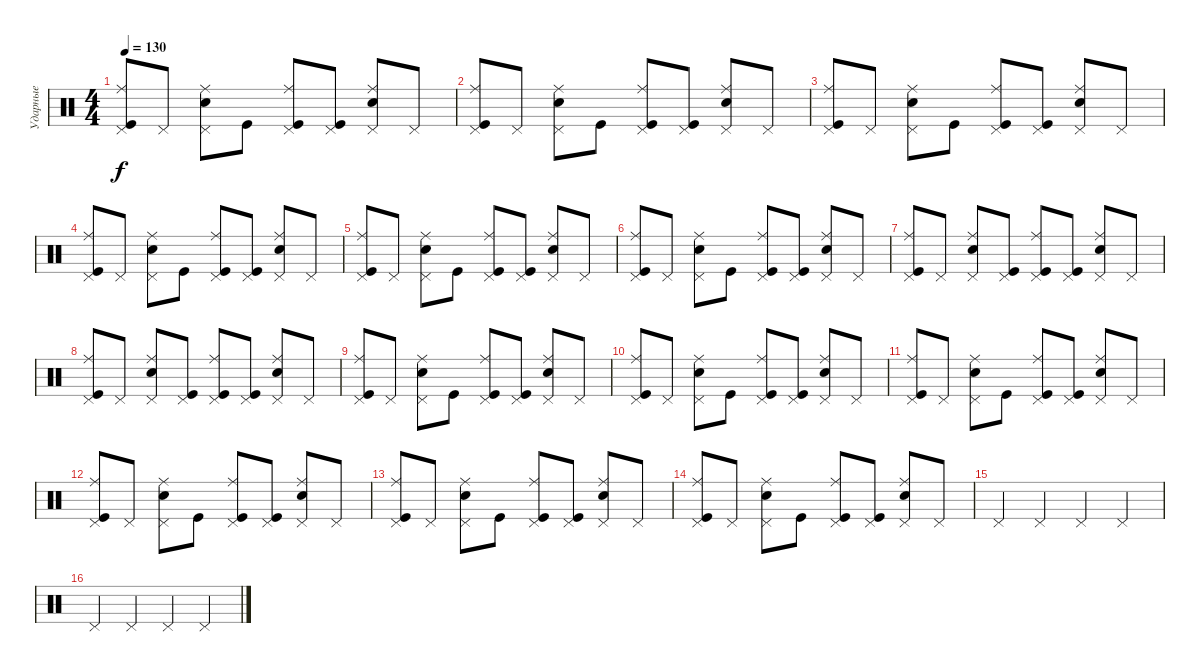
\track ("Ударные" "Ударные") {instrument percussion}
\staff {score}
\articulation defaults
\ts (4 4)
\tempo 130
\clef neutral
\ks c
("Ride (middle)" "Pedal Hi-Hat (hit)" "Kick (hit)").8{dy f} "Pedal Hi-Hat (hit)".8 ("Ride (middle)" "Pedal Hi-Hat (hit)" "Electric Snare (hit)").8 "Kick (hit)".8 ("Ride (middle)" "Pedal Hi-Hat (hit)" "Kick (hit)").8 ("Pedal Hi-Hat (hit)" "Kick (hit)").8 ("Ride (middle)" "Pedal Hi-Hat (hit)" "Electric Snare (hit)").8 "Pedal Hi-Hat (hit)".8 |
("Ride (middle)" "Pedal Hi-Hat (hit)" "Kick (hit)").8 "Pedal Hi-Hat (hit)".8 ("Ride (middle)" "Pedal Hi-Hat (hit)" "Electric Snare (hit)").8 "Kick (hit)".8 ("Ride (middle)" "Pedal Hi-Hat (hit)" "Kick (hit)").8 ("Pedal Hi-Hat (hit)" "Kick (hit)").8 ("Ride (middle)" "Pedal Hi-Hat (hit)" "Electric Snare (hit)").8 "Pedal Hi-Hat (hit)".8 |
("Ride (middle)" "Pedal Hi-Hat (hit)" "Kick (hit)").8 "Pedal Hi-Hat (hit)".8 ("Ride (middle)" "Pedal Hi-Hat (hit)" "Electric Snare (hit)").8 "Kick (hit)".8 ("Ride (middle)" "Pedal Hi-Hat (hit)" "Kick (hit)").8 ("Pedal Hi-Hat (hit)" "Kick (hit)").8 ("Ride (middle)" "Pedal Hi-Hat (hit)" "Electric Snare (hit)").8 "Pedal Hi-Hat (hit)".8 |
("Ride (middle)" "Pedal Hi-Hat (hit)" "Kick (hit)").8 "Pedal Hi-Hat (hit)".8 ("Ride (middle)" "Pedal Hi-Hat (hit)" "Electric Snare (hit)").8 "Kick (hit)".8 ("Ride (middle)" "Pedal Hi-Hat (hit)" "Kick (hit)").8 ("Pedal Hi-Hat (hit)" "Kick (hit)").8 ("Ride (middle)" "Pedal Hi-Hat (hit)" "Electric Snare (hit)").8 "Pedal Hi-Hat (hit)".8 |
("Ride (middle)" "Pedal Hi-Hat (hit)" "Kick (hit)").8 "Pedal Hi-Hat (hit)".8 ("Ride (middle)" "Pedal Hi-Hat (hit)" "Electric Snare (hit)").8 "Kick (hit)".8 ("Ride (middle)" "Pedal Hi-Hat (hit)" "Kick (hit)").8 ("Pedal Hi-Hat (hit)" "Kick (hit)").8 ("Ride (middle)" "Pedal Hi-Hat (hit)" "Electric Snare (hit)").8 "Pedal Hi-Hat (hit)".8 |
("Ride (middle)" "Pedal Hi-Hat (hit)" "Kick (hit)").8 "Pedal Hi-Hat (hit)".8 ("Ride (middle)" "Pedal Hi-Hat (hit)" "Electric Snare (hit)").8 "Kick (hit)".8 ("Ride (middle)" "Pedal Hi-Hat (hit)" "Kick (hit)").8 ("Pedal Hi-Hat (hit)" "Kick (hit)").8 ("Ride (middle)" "Pedal Hi-Hat (hit)" "Electric Snare (hit)").8 "Pedal Hi-Hat (hit)".8 |
("Ride (middle)" "Pedal Hi-Hat (hit)" "Kick (hit)").8 "Pedal Hi-Hat (hit)".8 ("Ride (middle)" "Pedal Hi-Hat (hit)" "Electric Snare (hit)").8 ("Pedal Hi-Hat (hit)" "Kick (hit)").8 ("Ride (middle)" "Pedal Hi-Hat (hit)" "Kick (hit)").8 ("Pedal Hi-Hat (hit)" "Kick (hit)").8 ("Ride (middle)" "Pedal Hi-Hat (hit)" "Electric Snare (hit)").8 "Pedal Hi-Hat (hit)".8 |
("Ride (middle)" "Pedal Hi-Hat (hit)" "Kick (hit)").8 "Pedal Hi-Hat (hit)".8 ("Ride (middle)" "Pedal Hi-Hat (hit)" "Electric Snare (hit)").8 ("Pedal Hi-Hat (hit)" "Kick (hit)").8 ("Ride (middle)" "Pedal Hi-Hat (hit)" "Kick (hit)").8 ("Pedal Hi-Hat (hit)" "Kick (hit)").8 ("Ride (middle)" "Pedal Hi-Hat (hit)" "Electric Snare (hit)").8 "Pedal Hi-Hat (hit)".8 |
("Ride (middle)" "Pedal Hi-Hat (hit)" "Kick (hit)").8 "Pedal Hi-Hat (hit)".8 ("Ride (middle)" "Pedal Hi-Hat (hit)" "Electric Snare (hit)").8 "Kick (hit)".8 ("Ride (middle)" "Pedal Hi-Hat (hit)" "Kick (hit)").8 ("Pedal Hi-Hat (hit)" "Kick (hit)").8 ("Ride (middle)" "Pedal Hi-Hat (hit)" "Electric Snare (hit)").8 "Pedal Hi-Hat (hit)".8 |
("Ride (middle)" "Pedal Hi-Hat (hit)" "Kick (hit)").8 "Pedal Hi-Hat (hit)".8 ("Ride (middle)" "Pedal Hi-Hat (hit)" "Electric Snare (hit)").8 "Kick (hit)".8 ("Ride (middle)" "Pedal Hi-Hat (hit)" "Kick (hit)").8 ("Pedal Hi-Hat (hit)" "Kick (hit)").8 ("Ride (middle)" "Pedal Hi-Hat (hit)" "Electric Snare (hit)").8 "Pedal Hi-Hat (hit)".8 |
("Ride (middle)" "Pedal Hi-Hat (hit)" "Kick (hit)").8 "Pedal Hi-Hat (hit)".8 ("Ride (middle)" "Pedal Hi-Hat (hit)" "Electric Snare (hit)").8 "Kick (hit)".8 ("Ride (middle)" "Pedal Hi-Hat (hit)" "Kick (hit)").8 ("Pedal Hi-Hat (hit)" "Kick (hit)").8 ("Ride (middle)" "Pedal Hi-Hat (hit)" "Electric Snare (hit)").8 "Pedal Hi-Hat (hit)".8 |
("Ride (middle)" "Pedal Hi-Hat (hit)" "Kick (hit)").8 "Pedal Hi-Hat (hit)".8 ("Ride (middle)" "Pedal Hi-Hat (hit)" "Electric Snare (hit)").8 "Kick (hit)".8 ("Ride (middle)" "Pedal Hi-Hat (hit)" "Kick (hit)").8 ("Pedal Hi-Hat (hit)" "Kick (hit)").8 ("Ride (middle)" "Pedal Hi-Hat (hit)" "Electric Snare (hit)").8 "Pedal Hi-Hat (hit)".8 |
("Ride (middle)" "Pedal Hi-Hat (hit)" "Kick (hit)").8 "Pedal Hi-Hat (hit)".8 ("Ride (middle)" "Pedal Hi-Hat (hit)" "Electric Snare (hit)").8 "Kick (hit)".8 ("Ride (middle)" "Pedal Hi-Hat (hit)" "Kick (hit)").8 ("Pedal Hi-Hat (hit)" "Kick (hit)").8 ("Ride (middle)" "Pedal Hi-Hat (hit)" "Electric Snare (hit)").8 "Pedal Hi-Hat (hit)".8 |
("Ride (middle)" "Pedal Hi-Hat (hit)" "Kick (hit)").8 "Pedal Hi-Hat (hit)".8 ("Ride (middle)" "Pedal Hi-Hat (hit)" "Electric Snare (hit)").8 "Kick (hit)".8 ("Ride (middle)" "Pedal Hi-Hat (hit)" "Kick (hit)").8 ("Pedal Hi-Hat (hit)" "Kick (hit)").8 ("Ride (middle)" "Pedal Hi-Hat (hit)" "Electric Snare (hit)").8 "Pedal Hi-Hat (hit)".8 |
"Pedal Hi-Hat (hit)".4 "Pedal Hi-Hat (hit)".4 "Pedal Hi-Hat (hit)".4 "Pedal Hi-Hat (hit)".4 |
"Pedal Hi-Hat (hit)".4 "Pedal Hi-Hat (hit)".4 "Pedal Hi-Hat (hit)".4 "Pedal Hi-Hat (hit)".4
